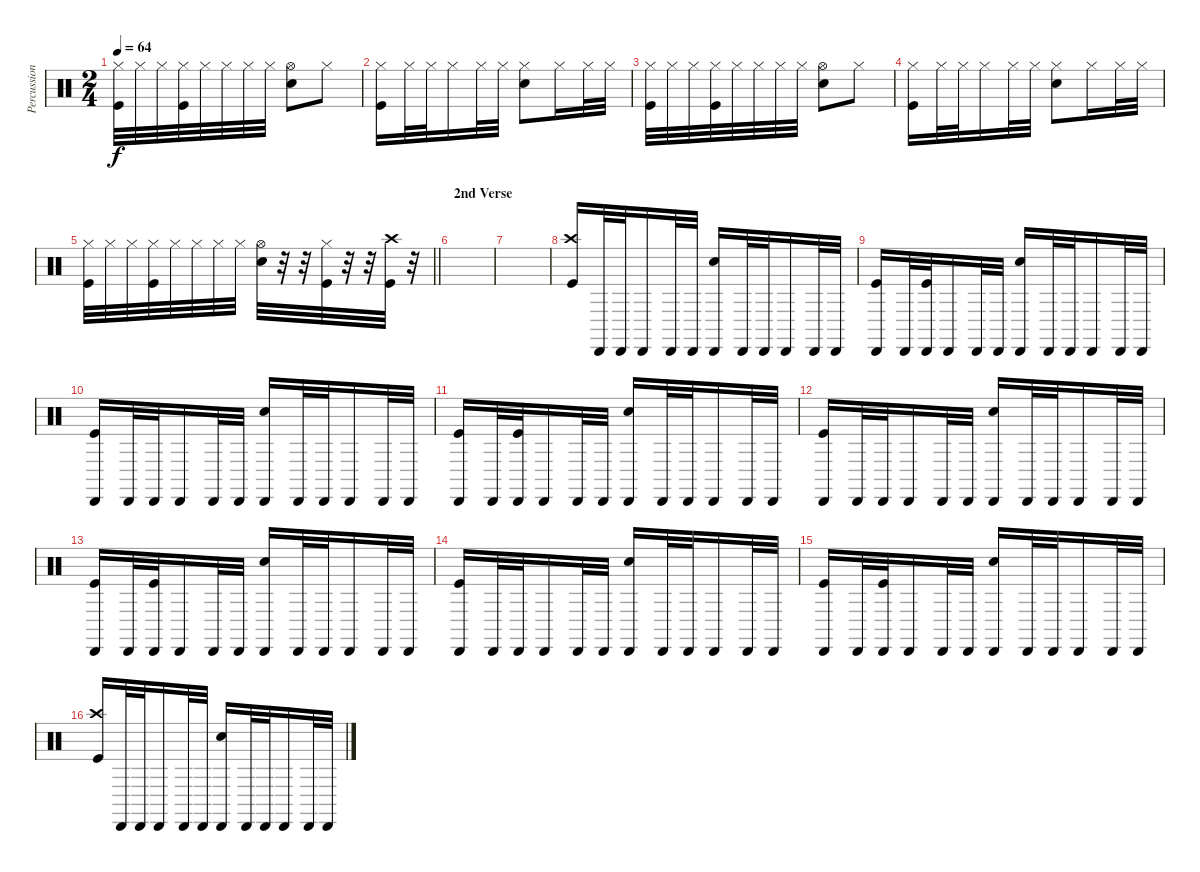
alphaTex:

\track ("Percussion" "Percussion") {instrument percussion}
\staff {score}
\articulation defaults
\ts (2 4)
\tempo 64
\clef neutral
\ks c
("Hi-Hat (closed)" "Kick (hit)").32{dy f} "Hi-Hat (closed)".32 "Hi-Hat (closed)".32 ("Hi-Hat (closed)" "Kick (hit)").32 "Hi-Hat (closed)".32 "Hi-Hat (closed)".32 "Hi-Hat (closed)".32 "Hi-Hat (closed)".32 ("Hi-Hat (open)" "Electric Snare (hit)").8 "Hi-Hat (closed)".8 |
("Hi-Hat (closed)" "Kick (hit)").16 "Hi-Hat (closed)".32 "Hi-Hat (closed)".32 "Hi-Hat (closed)".16 "Hi-Hat (closed)".32 "Hi-Hat (closed)".32 ("Hi-Hat (closed)" "Electric Snare (hit)").8 "Hi-Hat (closed)".16 "Hi-Hat (closed)".32 "Hi-Hat (closed)".32 |
("Hi-Hat (closed)" "Kick (hit)").32 "Hi-Hat (closed)".32 "Hi-Hat (closed)".32 ("Hi-Hat (closed)" "Kick (hit)").32 "Hi-Hat (closed)".32 "Hi-Hat (closed)".32 "Hi-Hat (closed)".32 "Hi-Hat (closed)".32 ("Hi-Hat (open)" "Electric Snare (hit)").8 "Hi-Hat (closed)".8 |
("Hi-Hat (closed)" "Kick (hit)").16 "Hi-Hat (closed)".32 "Hi-Hat (closed)".32 "Hi-Hat (closed)".16 "Hi-Hat (closed)".32 "Hi-Hat (closed)".32 ("Hi-Hat (closed)" "Electric Snare (hit)").8 "Hi-Hat (closed)".16 "Hi-Hat (closed)".32 "Hi-Hat (closed)".32 |
\barLineRight lightlight
("Hi-Hat (closed)" "Kick (hit)").32 "Hi-Hat (closed)".32 "Hi-Hat (closed)".32 ("Hi-Hat (closed)" "Kick (hit)").32 "Hi-Hat (closed)".32 "Hi-Hat (closed)".32 "Hi-Hat (closed)".32 "Hi-Hat (closed)".32 ("Hi-Hat (open)" "Electric Snare (hit)").32 r.32 r.32 ("Hi-Hat (closed)" "Kick (hit)").32 r.32 r.32 ("Crash high (hit)" "Kick (hit)").32 r.32 |
\section ("" "2nd Verse")
|
|
("Crash high (hit)" "Kick (hit)").16 "Cabasa (hit)".32 "Cabasa (hit)".32 "Cabasa (hit)".16 "Cabasa (hit)".32 "Cabasa (hit)".32 ("Cabasa (hit)" "Electric Snare (hit)").16 "Cabasa (hit)".32 "Cabasa (hit)".32 "Cabasa (hit)".16 "Cabasa (hit)".32 "Cabasa (hit)".32 |
("Cabasa (hit)" "Kick (hit)").16 "Cabasa (hit)".32 ("Cabasa (hit)" "Kick (hit)").32 "Cabasa (hit)".16 "Cabasa (hit)".32 "Cabasa (hit)".32 ("Cabasa (hit)" "Electric Snare (hit)").16 "Cabasa (hit)".32 "Cabasa (hit)".32 "Cabasa (hit)".16 "Cabasa (hit)".32 "Cabasa (hit)".32 |
("Cabasa (hit)" "Kick (hit)").16 "Cabasa (hit)".32 "Cabasa (hit)".32 "Cabasa (hit)".16 "Cabasa (hit)".32 "Cabasa (hit)".32 ("Cabasa (hit)" "Electric Snare (hit)").16 "Cabasa (hit)".32 "Cabasa (hit)".32 "Cabasa (hit)".16 "Cabasa (hit)".32 "Cabasa (hit)".32 |
("Cabasa (hit)" "Kick (hit)").16 "Cabasa (hit)".32 ("Cabasa (hit)" "Kick (hit)").32 "Cabasa (hit)".16 "Cabasa (hit)".32 "Cabasa (hit)".32 ("Cabasa (hit)" "Electric Snare (hit)").16 "Cabasa (hit)".32 "Cabasa (hit)".32 "Cabasa (hit)".16 "Cabasa (hit)".32 "Cabasa (hit)".32 |
("Cabasa (hit)" "Kick (hit)").16 "Cabasa (hit)".32 "Cabasa (hit)".32 "Cabasa (hit)".16 "Cabasa (hit)".32 "Cabasa (hit)".32 ("Cabasa (hit)" "Electric Snare (hit)").16 "Cabasa (hit)".32 "Cabasa (hit)".32 "Cabasa (hit)".16 "Cabasa (hit)".32 "Cabasa (hit)".32 |
("Cabasa (hit)" "Kick (hit)").16 "Cabasa (hit)".32 ("Cabasa (hit)" "Kick (hit)").32 "Cabasa (hit)".16 "Cabasa (hit)".32 "Cabasa (hit)".32 ("Cabasa (hit)" "Electric Snare (hit)").16 "Cabasa (hit)".32 "Cabasa (hit)".32 "Cabasa (hit)".16 "Cabasa (hit)".32 "Cabasa (hit)".32 |
("Cabasa (hit)" "Kick (hit)").16 "Cabasa (hit)".32 "Cabasa (hit)".32 "Cabasa (hit)".16 "Cabasa (hit)".32 "Cabasa (hit)".32 ("Cabasa (hit)" "Electric Snare (hit)").16 "Cabasa (hit)".32 "Cabasa (hit)".32 "Cabasa (hit)".16 "Cabasa (hit)".32 "Cabasa (hit)".32 |
("Cabasa (hit)" "Kick (hit)").16 "Cabasa (hit)".32 ("Cabasa (hit)" "Kick (hit)").32 "Cabasa (hit)".16 "Cabasa (hit)".32 "Cabasa (hit)".32 ("Cabasa (hit)" "Electric Snare (hit)").16 "Cabasa (hit)".32 "Cabasa (hit)".32 "Cabasa (hit)".16 "Cabasa (hit)".32 "Cabasa (hit)".32 |
("Crash high (hit)" "Kick (hit)").16 "Cabasa (hit)".32 "Cabasa (hit)".32 "Cabasa (hit)".16 "Cabasa (hit)".32 "Cabasa (hit)".32 ("Cabasa (hit)" "Electric Snare (hit)").16 "Cabasa (hit)".32 "Cabasa (hit)".32 "Cabasa (hit)".16 "Cabasa (hit)".32 "Cabasa (hit)".32
